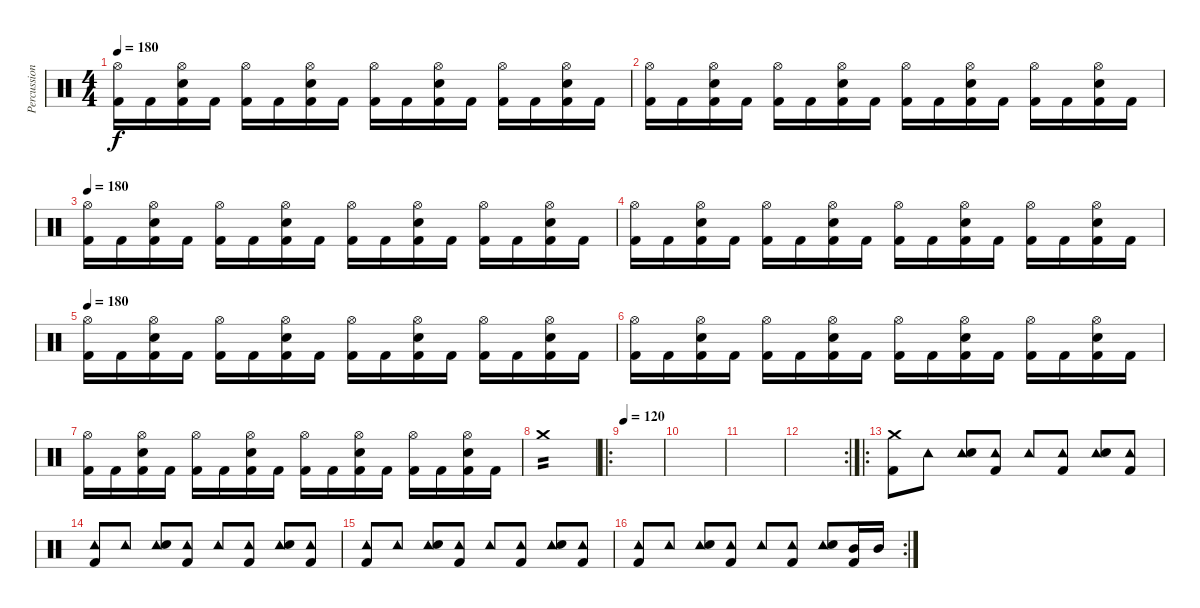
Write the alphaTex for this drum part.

\track ("Percussions" "Percussion") {instrument percussion}
\staff {score}
\articulation defaults
\ts (4 4)
\tempo 180
\clef neutral
\ks c
("Kick (hit) 2" "Hi-Hat (open)").16{dy f} "Kick (hit) 2".16 ("Kick (hit) 2" "Electric Snare (hit)" "Hi-Hat (open)").16 "Kick (hit) 2".16 ("Kick (hit) 2" "Hi-Hat (open)").16 "Kick (hit) 2".16 ("Kick (hit) 2" "Electric Snare (hit)" "Hi-Hat (open)").16 "Kick (hit) 2".16 ("Kick (hit) 2" "Hi-Hat (open)").16 "Kick (hit) 2".16 ("Kick (hit) 2" "Electric Snare (hit)" "Hi-Hat (open)").16 "Kick (hit) 2".16 ("Kick (hit) 2" "Hi-Hat (open)").16 "Kick (hit) 2".16 ("Kick (hit) 2" "Electric Snare (hit)" "Hi-Hat (open)").16 "Kick (hit) 2".16 |
("Kick (hit) 2" "Hi-Hat (open)").16 "Kick (hit) 2".16 ("Kick (hit) 2" "Electric Snare (hit)" "Hi-Hat (open)").16 "Kick (hit) 2".16 ("Kick (hit) 2" "Hi-Hat (open)").16 "Kick (hit) 2".16 ("Kick (hit) 2" "Electric Snare (hit)" "Hi-Hat (open)").16 "Kick (hit) 2".16 ("Kick (hit) 2" "Hi-Hat (open)").16 "Kick (hit) 2".16 ("Kick (hit) 2" "Electric Snare (hit)" "Hi-Hat (open)").16 "Kick (hit) 2".16 ("Kick (hit) 2" "Hi-Hat (open)").16 "Kick (hit) 2".16 ("Kick (hit) 2" "Electric Snare (hit)" "Hi-Hat (open)").16 "Kick (hit) 2".16 |
\tempo 180
("Kick (hit) 2" "Hi-Hat (open)").16 "Kick (hit) 2".16 ("Kick (hit) 2" "Electric Snare (hit)" "Hi-Hat (open)").16 "Kick (hit) 2".16 ("Kick (hit) 2" "Hi-Hat (open)").16 "Kick (hit) 2".16 ("Kick (hit) 2" "Electric Snare (hit)" "Hi-Hat (open)").16 "Kick (hit) 2".16 ("Kick (hit) 2" "Hi-Hat (open)").16 "Kick (hit) 2".16 ("Kick (hit) 2" "Electric Snare (hit)" "Hi-Hat (open)").16 "Kick (hit) 2".16 ("Kick (hit) 2" "Hi-Hat (open)").16 "Kick (hit) 2".16 ("Kick (hit) 2" "Electric Snare (hit)" "Hi-Hat (open)").16 "Kick (hit) 2".16 |
("Kick (hit) 2" "Hi-Hat (open)").16 "Kick (hit) 2".16 ("Kick (hit) 2" "Electric Snare (hit)" "Hi-Hat (open)").16 "Kick (hit) 2".16 ("Kick (hit) 2" "Hi-Hat (open)").16 "Kick (hit) 2".16 ("Kick (hit) 2" "Electric Snare (hit)" "Hi-Hat (open)").16 "Kick (hit) 2".16 ("Kick (hit) 2" "Hi-Hat (open)").16 "Kick (hit) 2".16 ("Kick (hit) 2" "Electric Snare (hit)" "Hi-Hat (open)").16 "Kick (hit) 2".16 ("Kick (hit) 2" "Hi-Hat (open)").16 "Kick (hit) 2".16 ("Kick (hit) 2" "Electric Snare (hit)" "Hi-Hat (open)").16 "Kick (hit) 2".16 |
\tempo 180
("Kick (hit) 2" "Hi-Hat (open)").16 "Kick (hit) 2".16 ("Kick (hit) 2" "Electric Snare (hit)" "Hi-Hat (open)").16 "Kick (hit) 2".16 ("Kick (hit) 2" "Hi-Hat (open)").16 "Kick (hit) 2".16 ("Kick (hit) 2" "Electric Snare (hit)" "Hi-Hat (open)").16 "Kick (hit) 2".16 ("Kick (hit) 2" "Hi-Hat (open)").16 "Kick (hit) 2".16 ("Kick (hit) 2" "Electric Snare (hit)" "Hi-Hat (open)").16 "Kick (hit) 2".16 ("Kick (hit) 2" "Hi-Hat (open)").16 "Kick (hit) 2".16 ("Kick (hit) 2" "Electric Snare (hit)" "Hi-Hat (open)").16 "Kick (hit) 2".16 |
("Kick (hit) 2" "Hi-Hat (open)").16 "Kick (hit) 2".16 ("Kick (hit) 2" "Electric Snare (hit)" "Hi-Hat (open)").16 "Kick (hit) 2".16 ("Kick (hit) 2" "Hi-Hat (open)").16 "Kick (hit) 2".16 ("Kick (hit) 2" "Electric Snare (hit)" "Hi-Hat (open)").16 "Kick (hit) 2".16 ("Kick (hit) 2" "Hi-Hat (open)").16 "Kick (hit) 2".16 ("Kick (hit) 2" "Electric Snare (hit)" "Hi-Hat (open)").16 "Kick (hit) 2".16 ("Kick (hit) 2" "Hi-Hat (open)").16 "Kick (hit) 2".16 ("Kick (hit) 2" "Electric Snare (hit)" "Hi-Hat (open)").16 "Kick (hit) 2".16 |
("Kick (hit) 2" "Hi-Hat (open)").16 "Kick (hit) 2".16 ("Kick (hit) 2" "Electric Snare (hit)" "Hi-Hat (open)").16 "Kick (hit) 2".16 ("Kick (hit) 2" "Hi-Hat (open)").16 "Kick (hit) 2".16 ("Kick (hit) 2" "Electric Snare (hit)" "Hi-Hat (open)").16 "Kick (hit) 2".16 ("Kick (hit) 2" "Hi-Hat (open)").16 "Kick (hit) 2".16 ("Kick (hit) 2" "Electric Snare (hit)" "Hi-Hat (open)").16 "Kick (hit) 2".16 ("Kick (hit) 2" "Hi-Hat (open)").16 "Kick (hit) 2".16 ("Kick (hit) 2" "Electric Snare (hit)" "Hi-Hat (open)").16 "Kick (hit) 2".16 |
"Crash medium (hit)".1{tp 2} |
\ro
\tempo 120
|
|
|
\rc 2
|
\ro
("Crash medium (hit)" "Kick (hit) 2").8 "Tambourine (hit)".8 ("Tambourine (hit)" "Electric Snare (hit)").8 ("Tambourine (hit)" "Kick (hit) 2").8 "Tambourine (hit)".8 ("Tambourine (hit)" "Kick (hit) 2").8 ("Tambourine (hit)" "Electric Snare (hit)").8 ("Tambourine (hit)" "Kick (hit) 2").8 |
("Tambourine (hit)" "Kick (hit) 2").8 "Tambourine (hit)".8 ("Tambourine (hit)" "Electric Snare (hit)").8 ("Tambourine (hit)" "Kick (hit) 2").8 "Tambourine (hit)".8 ("Tambourine (hit)" "Kick (hit) 2").8 ("Tambourine (hit)" "Electric Snare (hit)").8 ("Tambourine (hit)" "Kick (hit) 2").8 |
("Tambourine (hit)" "Kick (hit) 2").8 "Tambourine (hit)".8 ("Tambourine (hit)" "Electric Snare (hit)").8 ("Tambourine (hit)" "Kick (hit) 2").8 "Tambourine (hit)".8 ("Tambourine (hit)" "Kick (hit) 2").8 ("Tambourine (hit)" "Electric Snare (hit)").8 ("Tambourine (hit)" "Kick (hit) 2").8 |
\rc 2
("Tambourine (hit)" "Kick (hit) 2").8 "Tambourine (hit)".8 ("Tambourine (hit)" "Electric Snare (hit)").8 ("Tambourine (hit)" "Kick (hit) 2").8 "Tambourine (hit)".8 ("Tambourine (hit)" "Kick (hit) 2").8 ("Tambourine (hit)" "Electric Snare (hit)").8 ("Mid Tom (hit)" "Kick (hit) 2").16 "Mid Tom (hit)".16
